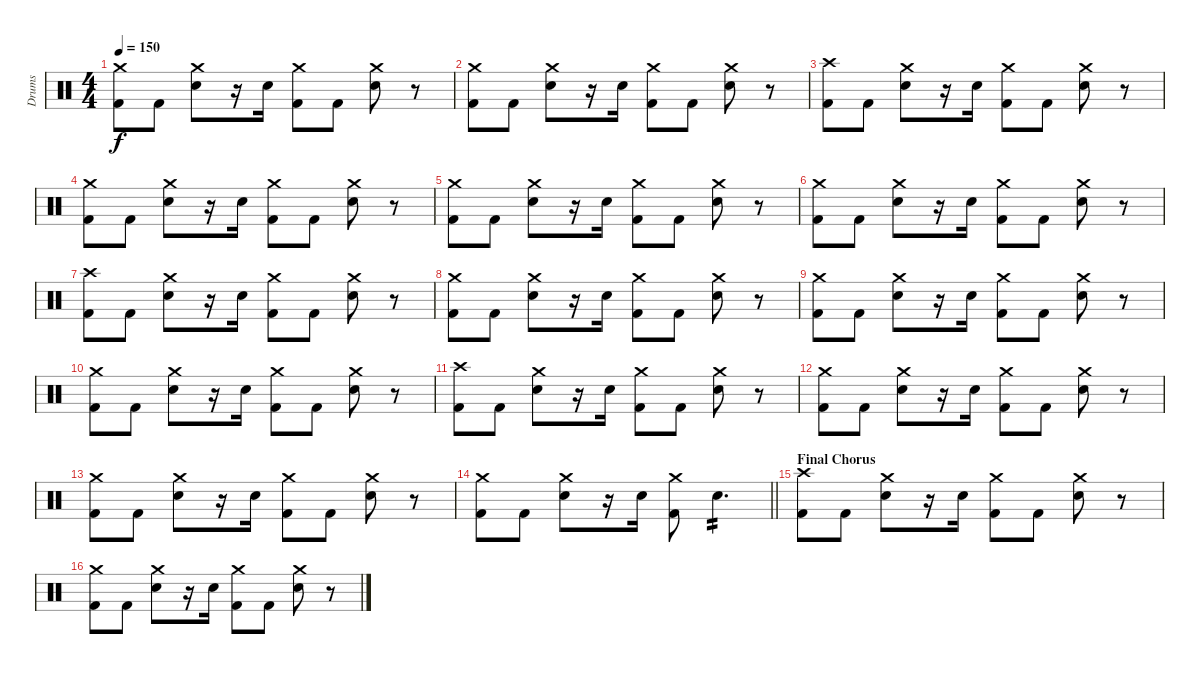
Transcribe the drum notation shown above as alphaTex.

\track ("Drums" "Drums") {instrument percussion}
\staff {score}
\articulation defaults
\ts (4 4)
\tempo 150
\clef neutral
\ks c
("Crash medium (hit)" "Kick (hit) 2").8{dy f} "Kick (hit) 2".8 ("Crash medium (hit)" "Electric Snare (hit)").8 r.16 "Electric Snare (hit)".16 ("Crash medium (hit)" "Kick (hit) 2").8 "Kick (hit) 2".8 ("Crash medium (hit)" "Electric Snare (hit)").8 r.8 |
("Crash medium (hit)" "Kick (hit) 2").8 "Kick (hit) 2".8 ("Crash medium (hit)" "Electric Snare (hit)").8 r.16 "Electric Snare (hit)".16 ("Crash medium (hit)" "Kick (hit) 2").8 "Kick (hit) 2".8 ("Crash medium (hit)" "Electric Snare (hit)").8 r.8 |
("Crash high (hit)" "Kick (hit) 2").8 "Kick (hit) 2".8 ("Crash medium (hit)" "Electric Snare (hit)").8 r.16 "Electric Snare (hit)".16 ("Crash medium (hit)" "Kick (hit) 2").8 "Kick (hit) 2".8 ("Crash medium (hit)" "Electric Snare (hit)").8 r.8 |
("Crash medium (hit)" "Kick (hit) 2").8 "Kick (hit) 2".8 ("Crash medium (hit)" "Electric Snare (hit)").8 r.16 "Electric Snare (hit)".16 ("Crash medium (hit)" "Kick (hit) 2").8 "Kick (hit) 2".8 ("Crash medium (hit)" "Electric Snare (hit)").8 r.8 |
("Crash medium (hit)" "Kick (hit) 2").8 "Kick (hit) 2".8 ("Crash medium (hit)" "Electric Snare (hit)").8 r.16 "Electric Snare (hit)".16 ("Crash medium (hit)" "Kick (hit) 2").8 "Kick (hit) 2".8 ("Crash medium (hit)" "Electric Snare (hit)").8 r.8 |
("Crash medium (hit)" "Kick (hit) 2").8 "Kick (hit) 2".8 ("Crash medium (hit)" "Electric Snare (hit)").8 r.16 "Electric Snare (hit)".16 ("Crash medium (hit)" "Kick (hit) 2").8 "Kick (hit) 2".8 ("Crash medium (hit)" "Electric Snare (hit)").8 r.8 |
("Crash high (hit)" "Kick (hit) 2").8 "Kick (hit) 2".8 ("Crash medium (hit)" "Electric Snare (hit)").8 r.16 "Electric Snare (hit)".16 ("Crash medium (hit)" "Kick (hit) 2").8 "Kick (hit) 2".8 ("Crash medium (hit)" "Electric Snare (hit)").8 r.8 |
("Crash medium (hit)" "Kick (hit) 2").8 "Kick (hit) 2".8 ("Crash medium (hit)" "Electric Snare (hit)").8 r.16 "Electric Snare (hit)".16 ("Crash medium (hit)" "Kick (hit) 2").8 "Kick (hit) 2".8 ("Crash medium (hit)" "Electric Snare (hit)").8 r.8 |
("Crash medium (hit)" "Kick (hit) 2").8 "Kick (hit) 2".8 ("Crash medium (hit)" "Electric Snare (hit)").8 r.16 "Electric Snare (hit)".16 ("Crash medium (hit)" "Kick (hit) 2").8 "Kick (hit) 2".8 ("Crash medium (hit)" "Electric Snare (hit)").8 r.8 |
("Crash medium (hit)" "Kick (hit) 2").8 "Kick (hit) 2".8 ("Crash medium (hit)" "Electric Snare (hit)").8 r.16 "Electric Snare (hit)".16 ("Crash medium (hit)" "Kick (hit) 2").8 "Kick (hit) 2".8 ("Crash medium (hit)" "Electric Snare (hit)").8 r.8 |
("Crash high (hit)" "Kick (hit) 2").8 "Kick (hit) 2".8 ("Crash medium (hit)" "Electric Snare (hit)").8 r.16 "Electric Snare (hit)".16 ("Crash medium (hit)" "Kick (hit) 2").8 "Kick (hit) 2".8 ("Crash medium (hit)" "Electric Snare (hit)").8 r.8 |
("Crash medium (hit)" "Kick (hit) 2").8 "Kick (hit) 2".8 ("Crash medium (hit)" "Electric Snare (hit)").8 r.16 "Electric Snare (hit)".16 ("Crash medium (hit)" "Kick (hit) 2").8 "Kick (hit) 2".8 ("Crash medium (hit)" "Electric Snare (hit)").8 r.8 |
("Crash medium (hit)" "Kick (hit) 2").8 "Kick (hit) 2".8 ("Crash medium (hit)" "Electric Snare (hit)").8 r.16 "Electric Snare (hit)".16 ("Crash medium (hit)" "Kick (hit) 2").8 "Kick (hit) 2".8 ("Crash medium (hit)" "Electric Snare (hit)").8 r.8 |
\barLineRight lightlight
("Crash medium (hit)" "Kick (hit) 2").8 "Kick (hit) 2".8 ("Crash medium (hit)" "Electric Snare (hit)").8 r.16 "Electric Snare (hit)".16 ("Crash medium (hit)" "Kick (hit) 2").8 "Electric Snare (hit)".4{d tp 2} |
\section ("" "Final Chorus")
("Crash high (hit)" "Kick (hit) 2").8 "Kick (hit) 2".8 ("Crash medium (hit)" "Electric Snare (hit)").8 r.16 "Electric Snare (hit)".16 ("Crash medium (hit)" "Kick (hit) 2").8 "Kick (hit) 2".8 ("Crash medium (hit)" "Electric Snare (hit)").8 r.8 |
("Crash medium (hit)" "Kick (hit) 2").8 "Kick (hit) 2".8 ("Crash medium (hit)" "Electric Snare (hit)").8 r.16 "Electric Snare (hit)".16 ("Crash medium (hit)" "Kick (hit) 2").8 "Kick (hit) 2".8 ("Crash medium (hit)" "Electric Snare (hit)").8 r.8
